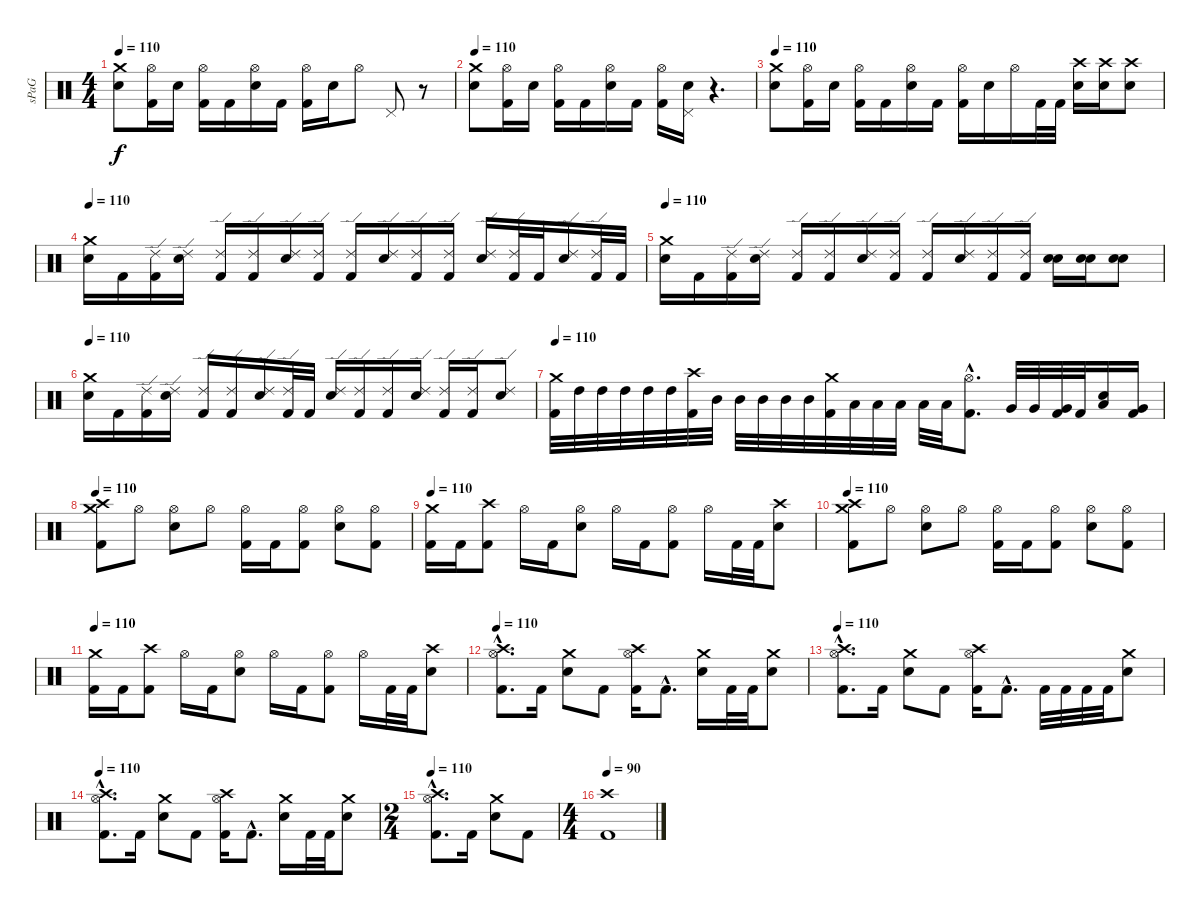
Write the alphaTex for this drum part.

\track ("sPaG" "sPaG") {instrument percussion}
\staff {score}
\articulation defaults
\ts (4 4)
\tempo 110
\clef neutral
\ks c
("Crash medium (hit)" "Snare (hit) 2").8{dy f} ("Hi-Hat (open)" "Kick (hit) 2").16 "Snare (hit) 2".16 ("Hi-Hat (open)" "Kick (hit) 2").16 "Kick (hit) 2".16 ("Hi-Hat (open)" "Snare (hit) 2").16 "Kick (hit) 2".16 ("Hi-Hat (open)" "Kick (hit) 2").16 "Snare (hit) 2".16 "Hi-Hat (open)".8 "Pedal Hi-Hat (hit)".8 r.8 |
\tempo 110
("Crash medium (hit)" "Snare (hit) 2").8 ("Hi-Hat (open)" "Kick (hit) 2").16 "Snare (hit) 2".16 ("Hi-Hat (open)" "Kick (hit) 2").16 "Kick (hit) 2".16 ("Hi-Hat (open)" "Snare (hit) 2").16 "Kick (hit) 2".16 ("Hi-Hat (open)" "Kick (hit) 2").16 ("Pedal Hi-Hat (hit)" "Snare (hit) 2").16 r.4{d} |
\tempo 110
("Crash medium (hit)" "Snare (hit) 2").8 ("Hi-Hat (open)" "Kick (hit) 2").16 "Snare (hit) 2".16 ("Hi-Hat (open)" "Kick (hit) 2").16 "Kick (hit) 2".16 ("Hi-Hat (open)" "Snare (hit) 2").16 "Kick (hit) 2".16 ("Hi-Hat (open)" "Kick (hit) 2").16 "Snare (hit) 2".16 "Hi-Hat (open)".16 "Kick (hit) 2".32 "Kick (hit) 2".32 ("Crash high (hit)" "Snare (hit) 2").16 ("Crash high (hit)" "Snare (hit) 2").16 ("Crash high (hit)" "Snare (hit) 2").8 |
\tempo 110
("Crash medium (hit)" "Snare (hit) 2").16 "Kick (hit) 2".16 ("Ride (edge) 2" "Kick (hit) 2").16 ("Ride (edge) 2" "Snare (hit) 2").16 ("Ride (edge) 2" "Kick (hit) 2").16 ("Ride (edge) 2" "Kick (hit) 2").16 ("Ride (edge) 2" "Snare (hit) 2").16 ("Ride (edge) 2" "Kick (hit) 2").16 ("Ride (edge) 2" "Kick (hit) 2").16 ("Ride (edge) 2" "Snare (hit) 2").16 ("Ride (edge) 2" "Kick (hit) 2").16 ("Ride (edge) 2" "Kick (hit) 2").16 ("Ride (edge) 2" "Snare (hit) 2").16 ("Ride (edge) 2" "Kick (hit) 2").32 "Kick (hit) 2".32 ("Ride (edge) 2" "Snare (hit) 2").16 ("Ride (edge) 2" "Kick (hit) 2").32 "Kick (hit) 2".32 |
\tempo 110
("Crash medium (hit)" "Snare (hit) 2").16 "Kick (hit) 2".16 ("Ride (edge) 2" "Kick (hit) 2").16 ("Ride (edge) 2" "Snare (hit) 2").16 ("Ride (edge) 2" "Kick (hit) 2").16 ("Ride (edge) 2" "Kick (hit) 2").16 ("Ride (edge) 2" "Snare (hit) 2").16 ("Ride (edge) 2" "Kick (hit) 2").16 ("Ride (edge) 2" "Kick (hit) 2").16 ("Ride (edge) 2" "Snare (hit) 2").16 ("Ride (edge) 2" "Kick (hit) 2").16 ("Ride (edge) 2" "Kick (hit) 2").16 ("Snare (hit) 2" "Snare (hit) 2").16 ("Snare (hit) 2" "Snare (hit) 2").16 ("Snare (hit) 2" "Snare (hit) 2").8 |
\tempo 110
("Crash medium (hit)" "Snare (hit) 2").16 "Kick (hit) 2".16 ("Ride (edge) 2" "Kick (hit) 2").16 ("Ride (edge) 2" "Snare (hit) 2").16 ("Ride (edge) 2" "Kick (hit) 2").16 ("Ride (edge) 2" "Kick (hit) 2").16 ("Ride (edge) 2" "Snare (hit) 2").16 ("Ride (edge) 2" "Kick (hit) 2").32 "Kick (hit) 2".32 ("Ride (edge) 2" "Snare (hit) 2").16 ("Ride (edge) 2" "Kick (hit) 2").16 ("Ride (edge) 2" "Kick (hit) 2").16 ("Ride (edge) 2" "Snare (hit) 2").16 ("Ride (edge) 2" "Kick (hit) 2").16 ("Ride (edge) 2" "Kick (hit) 2").16 ("Ride (edge) 2" "Snare (hit) 2").8 |
\tempo 110
("Crash medium (hit)" "Kick (hit) 2").32 "High Tom (hit)".32 "High Tom (hit)".32 "High Tom (hit)".32 "High Tom (hit)".32 "High Tom (hit)".32 ("Crash high (hit)" "Kick (hit) 2").32 "Mid Tom (hit)".32 "Mid Tom (hit)".32 "Mid Tom (hit)".32 "Mid Tom (hit)".32 "Mid Tom (hit)".32 ("Crash medium (hit)" "Kick (hit) 2").32 "Low Tom (hit)".32 "Low Tom (hit)".32 "Low Tom (hit)".32 "Low Tom (hit)".32 "Low Tom (hit)".32 ("Hi-Hat (open)"{hac} "Kick (hit) 2"{hac}).8{d} "Very Low Tom (hit)".32 "Very Low Tom (hit)".32 ("Very Low Tom (hit)" "Kick (hit) 2").32 "Kick (hit) 2".32 ("Low Tom (hit)" "Snare (hit) 2").16 ("Very Low Tom (hit)" "Kick (hit) 2").16 |
\tempo 110
("Crash medium (hit)" "Crash high (hit)" "Kick (hit) 2").8 "Hi-Hat (open)".8 ("Hi-Hat (open)" "Snare (hit) 2").8 "Hi-Hat (open)".8 ("Hi-Hat (open)" "Kick (hit) 2").16 "Kick (hit) 2".16 ("Hi-Hat (open)" "Kick (hit) 2").8 ("Hi-Hat (open)" "Snare (hit) 2").8 ("Hi-Hat (open)" "Kick (hit) 2").8 |
\tempo 110
("Crash medium (hit)" "Kick (hit) 2").16 "Kick (hit) 2".16 ("Crash high (hit)" "Kick (hit) 2").8 "Hi-Hat (open)".16 "Kick (hit) 2".16 ("Hi-Hat (open)" "Snare (hit) 2").8 "Hi-Hat (open)".16 "Kick (hit) 2".16 ("Hi-Hat (open)" "Kick (hit) 2").8 "Hi-Hat (open)".16 "Kick (hit) 2".32 "Kick (hit) 2".32 ("Crash high (hit)" "Snare (hit) 2").8 |
\tempo 110
("Crash medium (hit)" "Crash high (hit)" "Kick (hit) 2").8 "Hi-Hat (open)".8 ("Hi-Hat (open)" "Snare (hit) 2").8 "Hi-Hat (open)".8 ("Hi-Hat (open)" "Kick (hit) 2").16 "Kick (hit) 2".16 ("Hi-Hat (open)" "Kick (hit) 2").8 ("Hi-Hat (open)" "Snare (hit) 2").8 ("Hi-Hat (open)" "Kick (hit) 2").8 |
\tempo 110
("Crash medium (hit)" "Kick (hit) 2").16 "Kick (hit) 2".16 ("Crash high (hit)" "Kick (hit) 2").8 "Hi-Hat (open)".16 "Kick (hit) 2".16 ("Hi-Hat (open)" "Snare (hit) 2").8 "Hi-Hat (open)".16 "Kick (hit) 2".16 ("Hi-Hat (open)" "Kick (hit) 2").8 "Hi-Hat (open)".16 "Kick (hit) 2".32 "Kick (hit) 2".32 ("Crash high (hit)" "Snare (hit) 2").8 |
\tempo 110
("Crash high (hit)"{hac} "Hi-Hat (open)"{hac} "Kick (hit) 2"{hac}).8{d} "Kick (hit) 2".16 ("Crash medium (hit)" "Snare (hit) 2").8 "Kick (hit) 2".8 ("Crash high (hit)" "Hi-Hat (open)" "Kick (hit) 2").16 "Kick (hit) 2"{hac}.8{d} ("Crash medium (hit)" "Snare (hit) 2").16 "Kick (hit) 2".32 "Kick (hit) 2".32 ("Crash medium (hit)" "Snare (hit) 2").8 |
\tempo 110
("Crash high (hit)"{hac} "Hi-Hat (open)"{hac} "Kick (hit) 2"{hac}).8{d} "Kick (hit) 2".16 ("Crash medium (hit)" "Snare (hit) 2").8 "Kick (hit) 2".8 ("Crash high (hit)" "Hi-Hat (open)" "Kick (hit) 2").16 "Kick (hit) 2"{hac}.8{d} "Kick (hit) 2".32 "Kick (hit) 2".32 "Kick (hit) 2".32 "Kick (hit) 2".32 ("Crash medium (hit)" "Snare (hit) 2").8 |
\tempo 110
("Crash high (hit)"{hac} "Hi-Hat (open)"{hac} "Kick (hit) 2"{hac}).8{d} "Kick (hit) 2".16 ("Crash medium (hit)" "Snare (hit) 2").8 "Kick (hit) 2".8 ("Crash high (hit)" "Hi-Hat (open)" "Kick (hit) 2").16 "Kick (hit) 2"{hac}.8{d} ("Crash medium (hit)" "Snare (hit) 2").16 "Kick (hit) 2".32 "Kick (hit) 2".32 ("Crash medium (hit)" "Snare (hit) 2").8 |
\ts (2 4)
\tempo 110
("Crash high (hit)"{hac} "Hi-Hat (open)"{hac} "Kick (hit) 2"{hac}).8{d} "Kick (hit) 2".16 ("Crash medium (hit)" "Snare (hit) 2").8 "Kick (hit) 2".8 |
\ts (4 4)
\tempo 90
("Crash high (hit)" "Kick (hit) 2").1
